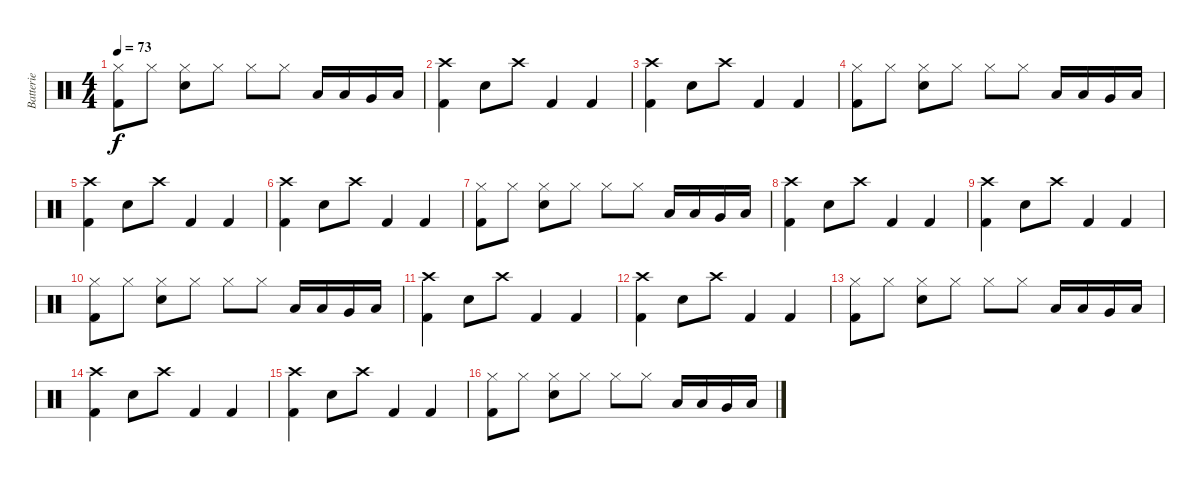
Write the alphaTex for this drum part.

\track ("Batterie" "Batterie") {instrument percussion}
\staff {score}
\articulation defaults
\ts (4 4)
\tempo 73
\clef neutral
\ks c
("Hi-Hat (closed)" "Kick (hit) 2").8{dy f} "Hi-Hat (closed)".8 ("Hi-Hat (closed)" "Snare (hit) 2").8 "Hi-Hat (closed)".8 "Hi-Hat (closed)".8 "Hi-Hat (closed)".8 "Low Tom (hit)".16 "Low Tom (hit)".16 "Very Low Tom (hit)".16 "Low Floor Tom (hit)".16 |
("Crash high (hit)" "Kick (hit) 2").4 "Snare (hit) 2".8 "Crash high (hit)".8 "Kick (hit) 2".4 "Kick (hit) 2".4 |
("Crash high (hit)" "Kick (hit) 2").4 "Snare (hit) 2".8 "Crash high (hit)".8 "Kick (hit) 2".4 "Kick (hit) 2".4 |
("Hi-Hat (closed)" "Kick (hit) 2").8 "Hi-Hat (closed)".8 ("Hi-Hat (closed)" "Snare (hit) 2").8 "Hi-Hat (closed)".8 "Hi-Hat (closed)".8 "Hi-Hat (closed)".8 "Low Tom (hit)".16 "Low Tom (hit)".16 "Very Low Tom (hit)".16 "Low Floor Tom (hit)".16 |
("Crash high (hit)" "Kick (hit) 2").4 "Snare (hit) 2".8 "Crash high (hit)".8 "Kick (hit) 2".4 "Kick (hit) 2".4 |
("Crash high (hit)" "Kick (hit) 2").4 "Snare (hit) 2".8 "Crash high (hit)".8 "Kick (hit) 2".4 "Kick (hit) 2".4 |
("Hi-Hat (closed)" "Kick (hit) 2").8 "Hi-Hat (closed)".8 ("Hi-Hat (closed)" "Snare (hit) 2").8 "Hi-Hat (closed)".8 "Hi-Hat (closed)".8 "Hi-Hat (closed)".8 "Low Tom (hit)".16 "Low Tom (hit)".16 "Very Low Tom (hit)".16 "Low Floor Tom (hit)".16 |
("Crash high (hit)" "Kick (hit) 2").4 "Snare (hit) 2".8 "Crash high (hit)".8 "Kick (hit) 2".4 "Kick (hit) 2".4 |
("Crash high (hit)" "Kick (hit) 2").4 "Snare (hit) 2".8 "Crash high (hit)".8 "Kick (hit) 2".4 "Kick (hit) 2".4 |
("Hi-Hat (closed)" "Kick (hit) 2").8 "Hi-Hat (closed)".8 ("Hi-Hat (closed)" "Snare (hit) 2").8 "Hi-Hat (closed)".8 "Hi-Hat (closed)".8 "Hi-Hat (closed)".8 "Low Tom (hit)".16 "Low Tom (hit)".16 "Very Low Tom (hit)".16 "Low Floor Tom (hit)".16 |
("Crash high (hit)" "Kick (hit) 2").4 "Snare (hit) 2".8 "Crash high (hit)".8 "Kick (hit) 2".4 "Kick (hit) 2".4 |
("Crash high (hit)" "Kick (hit) 2").4 "Snare (hit) 2".8 "Crash high (hit)".8 "Kick (hit) 2".4 "Kick (hit) 2".4 |
("Hi-Hat (closed)" "Kick (hit) 2").8 "Hi-Hat (closed)".8 ("Hi-Hat (closed)" "Snare (hit) 2").8 "Hi-Hat (closed)".8 "Hi-Hat (closed)".8 "Hi-Hat (closed)".8 "Low Tom (hit)".16 "Low Tom (hit)".16 "Very Low Tom (hit)".16 "Low Floor Tom (hit)".16 |
("Crash high (hit)" "Kick (hit) 2").4 "Snare (hit) 2".8 "Crash high (hit)".8 "Kick (hit) 2".4 "Kick (hit) 2".4 |
("Crash high (hit)" "Kick (hit) 2").4 "Snare (hit) 2".8 "Crash high (hit)".8 "Kick (hit) 2".4 "Kick (hit) 2".4 |
("Hi-Hat (closed)" "Kick (hit) 2").8 "Hi-Hat (closed)".8 ("Hi-Hat (closed)" "Snare (hit) 2").8 "Hi-Hat (closed)".8 "Hi-Hat (closed)".8 "Hi-Hat (closed)".8 "Low Tom (hit)".16 "Low Tom (hit)".16 "Very Low Tom (hit)".16 "Low Floor Tom (hit)".16
